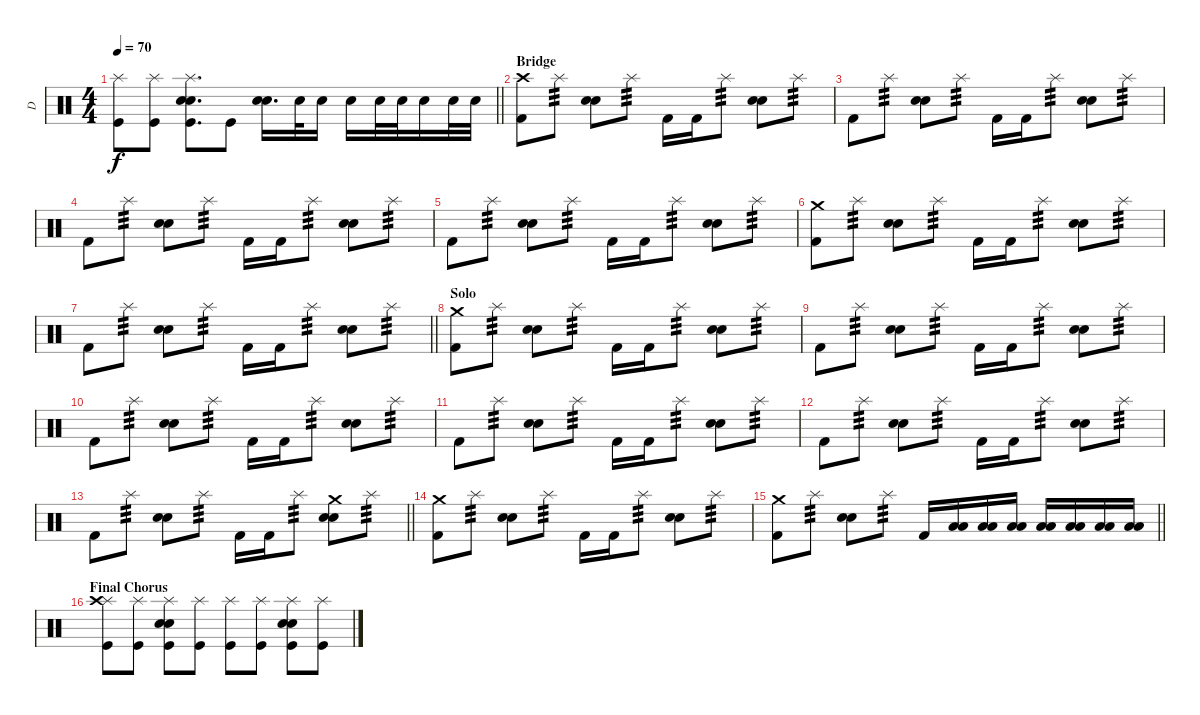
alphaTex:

\track ("D" "D") {instrument percussion}
\staff {score}
\articulation defaults
\ts (4 4)
\tempo 70
\clef neutral
\barLineRight lightlight
\ks c
("Splash (hit)" "Kick (hit)").8{dy f} ("Splash (hit)" "Kick (hit)").8 ("Splash (hit)" "Electric Snare (hit)" "Electric Snare (hit)" "Kick (hit)").8{d} "Kick (hit)".8 ("Electric Snare (hit)" "Electric Snare (hit)").16{d} "Electric Snare (hit)".32 "Electric Snare (hit)".16 "Electric Snare (hit)".16 "Electric Snare (hit)".32 "Electric Snare (hit)".32 "Electric Snare (hit)".16 "Electric Snare (hit)".32 "Electric Snare (hit)".32 |
\section ("" "Bridge")
("Crash high (hit)" "Kick (hit) 2").8 "Splash (hit)".8{tp 3} ("Electric Snare (hit)" "Electric Snare (hit)").8 "Splash (hit)".8{tp 3} "Kick (hit) 2".16 "Kick (hit) 2".16 "Splash (hit)".8{tp 3} ("Electric Snare (hit)" "Electric Snare (hit)").8 "Splash (hit)".8{tp 3} |
"Kick (hit) 2".8 "Splash (hit)".8{tp 3} ("Electric Snare (hit)" "Electric Snare (hit)").8 "Splash (hit)".8{tp 3} "Kick (hit) 2".16 "Kick (hit) 2".16 "Splash (hit)".8{tp 3} ("Electric Snare (hit)" "Electric Snare (hit)").8 "Splash (hit)".8{tp 3} |
"Kick (hit) 2".8 "Splash (hit)".8{tp 3} ("Electric Snare (hit)" "Electric Snare (hit)").8 "Splash (hit)".8{tp 3} "Kick (hit) 2".16 "Kick (hit) 2".16 "Splash (hit)".8{tp 3} ("Electric Snare (hit)" "Electric Snare (hit)").8 "Splash (hit)".8{tp 3} |
"Kick (hit) 2".8 "Splash (hit)".8{tp 3} ("Electric Snare (hit)" "Electric Snare (hit)").8 "Splash (hit)".8{tp 3} "Kick (hit) 2".16 "Kick (hit) 2".16 "Splash (hit)".8{tp 3} ("Electric Snare (hit)" "Electric Snare (hit)").8 "Splash (hit)".8{tp 3} |
("Crash medium (hit)" "Kick (hit) 2").8 "Splash (hit)".8{tp 3} ("Electric Snare (hit)" "Electric Snare (hit)").8 "Splash (hit)".8{tp 3} "Kick (hit) 2".16 "Kick (hit) 2".16 "Splash (hit)".8{tp 3} ("Electric Snare (hit)" "Electric Snare (hit)").8 "Splash (hit)".8{tp 3} |
\barLineRight lightlight "Kick (hit) 2".8 "Splash (hit)".8{tp 3}
("Electric Snare (hit)" "Electric Snare (hit)").8 "Splash (hit)".8{tp 3} "Kick (hit) 2".16 "Kick (hit) 2".16 "Splash (hit)".8{tp 3} ("Electric Snare (hit)" "Electric Snare (hit)").8 "Splash (hit)".8{tp 3} |
\section ("" "Solo")
("Crash medium (hit)" "Kick (hit) 2").8 "Splash (hit)".8{tp 3} ("Electric Snare (hit)" "Electric Snare (hit)").8 "Splash (hit)".8{tp 3} "Kick (hit) 2".16 "Kick (hit) 2".16 "Splash (hit)".8{tp 3} ("Electric Snare (hit)" "Electric Snare (hit)").8 "Splash (hit)".8{tp 3} |
"Kick (hit) 2".8 "Splash (hit)".8{tp 3} ("Electric Snare (hit)" "Electric Snare (hit)").8 "Splash (hit)".8{tp 3} "Kick (hit) 2".16 "Kick (hit) 2".16 "Splash (hit)".8{tp 3} ("Electric Snare (hit)" "Electric Snare (hit)").8 "Splash (hit)".8{tp 3} |
"Kick (hit) 2".8 "Splash (hit)".8{tp 3} ("Electric Snare (hit)" "Electric Snare (hit)").8 "Splash (hit)".8{tp 3} "Kick (hit) 2".16 "Kick (hit) 2".16 "Splash (hit)".8{tp 3} ("Electric Snare (hit)" "Electric Snare (hit)").8 "Splash (hit)".8{tp 3} |
"Kick (hit) 2".8 "Splash (hit)".8{tp 3} ("Electric Snare (hit)" "Electric Snare (hit)").8 "Splash (hit)".8{tp 3} "Kick (hit) 2".16 "Kick (hit) 2".16 "Splash (hit)".8{tp 3} ("Electric Snare (hit)" "Electric Snare (hit)").8 "Splash (hit)".8{tp 3} |
"Kick (hit) 2".8 "Splash (hit)".8{tp 3} ("Electric Snare (hit)" "Electric Snare (hit)").8 "Splash (hit)".8{tp 3} "Kick (hit) 2".16 "Kick (hit) 2".16 "Splash (hit)".8{tp 3} ("Electric Snare (hit)" "Electric Snare (hit)").8 "Splash (hit)".8{tp 3} |
\barLineRight lightlight "Kick (hit) 2".8 "Splash (hit)".8{tp 3}
("Electric Snare (hit)" "Electric Snare (hit)").8 "Splash (hit)".8{tp 3} "Kick (hit) 2".16 "Kick (hit) 2".16 "Splash (hit)".8{tp 3} ("Crash medium (hit)" "Electric Snare (hit)" "Electric Snare (hit)").8 "Splash (hit)".8{tp 3} |
("Crash medium (hit)" "Kick (hit) 2").8 "Splash (hit)".8{tp 3} ("Electric Snare (hit)" "Electric Snare (hit)").8 "Splash (hit)".8{tp 3} "Kick (hit) 2".16 "Kick (hit) 2".16 "Splash (hit)".8{tp 3} ("Electric Snare (hit)" "Electric Snare (hit)").8 "Splash (hit)".8{tp 3} |
\barLineRight lightlight
("Crash medium (hit)" "Kick (hit) 2").8 "Splash (hit)".8{tp 3} ("Electric Snare (hit)" "Electric Snare (hit)").8 "Splash (hit)".8{tp 3} "Kick (hit) 2".16 ("Low Tom (hit)" "Low Floor Tom (hit)").16 ("Low Tom (hit)" "Low Floor Tom (hit)").16 ("Low Tom (hit)" "Low Floor Tom (hit)").16 ("Low Tom (hit)" "Low Floor Tom (hit)").16 ("Low Tom (hit)" "Low Floor Tom (hit)").16 ("Low Tom (hit)" "Low Floor Tom (hit)").16 ("Low Tom (hit)" "Low Floor Tom (hit)").16 |
\section ("" "Final Chorus")
("Splash (hit)" "Crash high (hit)" "Kick (hit)").8 ("Splash (hit)" "Kick (hit)").8 ("Splash (hit)" "Electric Snare (hit)" "Electric Snare (hit)" "Kick (hit)").8 ("Splash (hit)" "Kick (hit)").8 ("Splash (hit)" "Kick (hit)").8 ("Splash (hit)" "Kick (hit)").8 ("Splash (hit)" "Electric Snare (hit)" "Electric Snare (hit)" "Kick (hit)").8 ("Splash (hit)" "Kick (hit)").8
